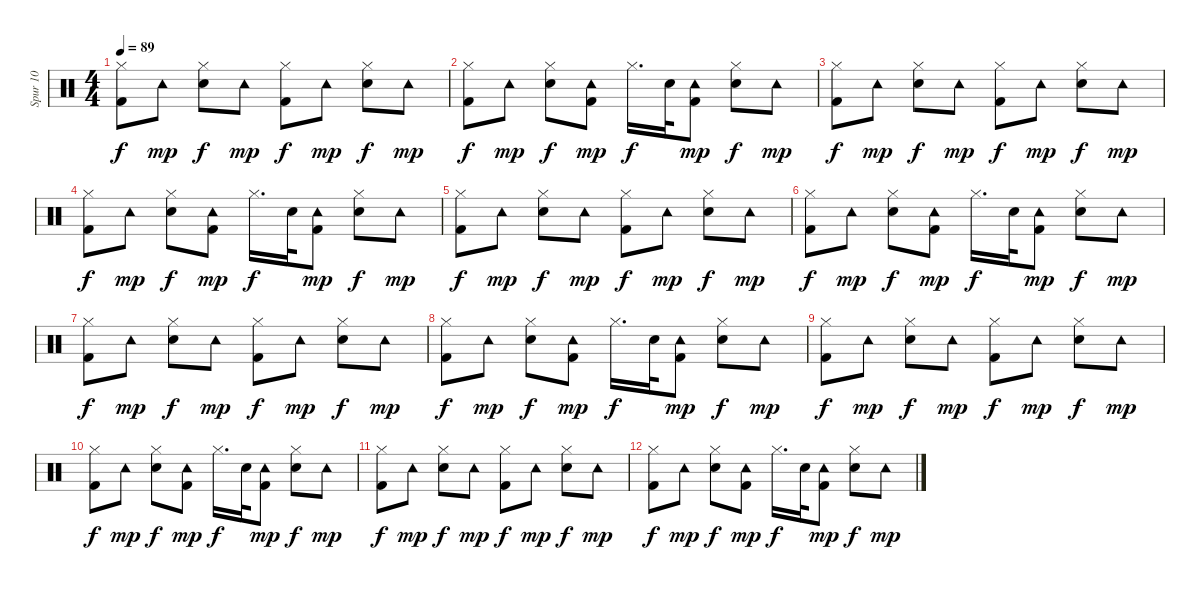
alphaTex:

\track ("Spur 10" "Spur 10") {instrument percussion}
\staff {score}
\articulation defaults
\ts (4 4)
\tempo 89
\clef neutral
\ks c
("Kick (hit) 2" "Hi-Hat (closed)").8{dy f} "Tambourine (hit)".8{dy mp} ("Electric Snare (hit)" "Hi-Hat (closed)").8{dy f} "Tambourine (hit)".8{dy mp} ("Kick (hit) 2" "Hi-Hat (closed)").8{dy f} "Tambourine (hit)".8{dy mp} ("Electric Snare (hit)" "Hi-Hat (closed)").8{dy f} "Tambourine (hit)".8{dy mp} |
("Kick (hit) 2" "Hi-Hat (closed)").8{dy f} "Tambourine (hit)".8{dy mp} ("Electric Snare (hit)" "Hi-Hat (closed)").8{dy f} ("Kick (hit) 2" "Tambourine (hit)").8{dy mp} "Hi-Hat (closed)".16{d dy f} "Electric Snare (hit)".32 ("Kick (hit) 2" "Tambourine (hit)").8{dy mp} ("Electric Snare (hit)" "Hi-Hat (closed)").8{dy f} "Tambourine (hit)".8{dy mp} |
("Kick (hit) 2" "Hi-Hat (closed)").8{dy f} "Tambourine (hit)".8{dy mp} ("Electric Snare (hit)" "Hi-Hat (closed)").8{dy f} "Tambourine (hit)".8{dy mp} ("Kick (hit) 2" "Hi-Hat (closed)").8{dy f} "Tambourine (hit)".8{dy mp} ("Electric Snare (hit)" "Hi-Hat (closed)").8{dy f} "Tambourine (hit)".8{dy mp} |
("Kick (hit) 2" "Hi-Hat (closed)").8{dy f} "Tambourine (hit)".8{dy mp} ("Electric Snare (hit)" "Hi-Hat (closed)").8{dy f} ("Kick (hit) 2" "Tambourine (hit)").8{dy mp} "Hi-Hat (closed)".16{d dy f} "Electric Snare (hit)".32 ("Kick (hit) 2" "Tambourine (hit)").8{dy mp} ("Electric Snare (hit)" "Hi-Hat (closed)").8{dy f} "Tambourine (hit)".8{dy mp} |
("Kick (hit) 2" "Hi-Hat (closed)").8{dy f} "Tambourine (hit)".8{dy mp} ("Electric Snare (hit)" "Hi-Hat (closed)").8{dy f} "Tambourine (hit)".8{dy mp} ("Kick (hit) 2" "Hi-Hat (closed)").8{dy f} "Tambourine (hit)".8{dy mp} ("Electric Snare (hit)" "Hi-Hat (closed)").8{dy f} "Tambourine (hit)".8{dy mp} |
("Kick (hit) 2" "Hi-Hat (closed)").8{dy f} "Tambourine (hit)".8{dy mp} ("Electric Snare (hit)" "Hi-Hat (closed)").8{dy f} ("Kick (hit) 2" "Tambourine (hit)").8{dy mp} "Hi-Hat (closed)".16{d dy f} "Electric Snare (hit)".32 ("Kick (hit) 2" "Tambourine (hit)").8{dy mp} ("Electric Snare (hit)" "Hi-Hat (closed)").8{dy f} "Tambourine (hit)".8{dy mp} |
("Kick (hit) 2" "Hi-Hat (closed)").8{dy f} "Tambourine (hit)".8{dy mp} ("Electric Snare (hit)" "Hi-Hat (closed)").8{dy f} "Tambourine (hit)".8{dy mp} ("Kick (hit) 2" "Hi-Hat (closed)").8{dy f} "Tambourine (hit)".8{dy mp} ("Electric Snare (hit)" "Hi-Hat (closed)").8{dy f} "Tambourine (hit)".8{dy mp} |
("Kick (hit) 2" "Hi-Hat (closed)").8{dy f volume 12} "Tambourine (hit)".8{dy mp volume 12} ("Electric Snare (hit)" "Hi-Hat (closed)").8{dy f volume 12} ("Kick (hit) 2" "Tambourine (hit)").8{dy mp volume 12} "Hi-Hat (closed)".16{d dy f volume 11} "Electric Snare (hit)".32{volume 11} ("Kick (hit) 2" "Tambourine (hit)").8{dy mp volume 11} ("Electric Snare (hit)" "Hi-Hat (closed)").8{dy f volume 11} "Tambourine (hit)".8{dy mp volume 11} |
("Kick (hit) 2" "Hi-Hat (closed)").8{dy f volume 10} "Tambourine (hit)".8{dy mp volume 10} ("Electric Snare (hit)" "Hi-Hat (closed)").8{dy f volume 10} "Tambourine (hit)".8{dy mp volume 10} ("Kick (hit) 2" "Hi-Hat (closed)").8{dy f volume 9} "Tambourine (hit)".8{dy mp volume 9} ("Electric Snare (hit)" "Hi-Hat (closed)").8{dy f volume 9} "Tambourine (hit)".8{dy mp volume 9} |
("Kick (hit) 2" "Hi-Hat (closed)").8{dy f volume 8} "Tambourine (hit)".8{dy mp volume 8} ("Electric Snare (hit)" "Hi-Hat (closed)").8{dy f volume 8} ("Kick (hit) 2" "Tambourine (hit)").8{dy mp volume 8} "Hi-Hat (closed)".16{d dy f volume 7} "Electric Snare (hit)".32{volume 7} ("Kick (hit) 2" "Tambourine (hit)").8{dy mp} ("Electric Snare (hit)" "Hi-Hat (closed)").8{dy f volume 7} "Tambourine (hit)".8{dy mp volume 7} |
("Kick (hit) 2" "Hi-Hat (closed)").8{dy f volume 6} "Tambourine (hit)".8{dy mp volume 6} ("Electric Snare (hit)" "Hi-Hat (closed)").8{dy f volume 6} "Tambourine (hit)".8{dy mp volume 6} ("Kick (hit) 2" "Hi-Hat (closed)").8{dy f volume 5} "Tambourine (hit)".8{dy mp volume 5} ("Electric Snare (hit)" "Hi-Hat (closed)").8{dy f volume 5} "Tambourine (hit)".8{dy mp volume 4} |
("Kick (hit) 2" "Hi-Hat (closed)").8{dy f volume 4} "Tambourine (hit)".8{dy mp volume 4} ("Electric Snare (hit)" "Hi-Hat (closed)").8{dy f volume 4} ("Kick (hit) 2" "Tambourine (hit)").8{dy mp volume 4} "Hi-Hat (closed)".16{d dy f volume 3} "Electric Snare (hit)".32{volume 3} ("Kick (hit) 2" "Tambourine (hit)").8{dy mp volume 3} ("Electric Snare (hit)" "Hi-Hat (closed)").8{dy f volume 3} "Tambourine (hit)".8{dy mp volume 2}
